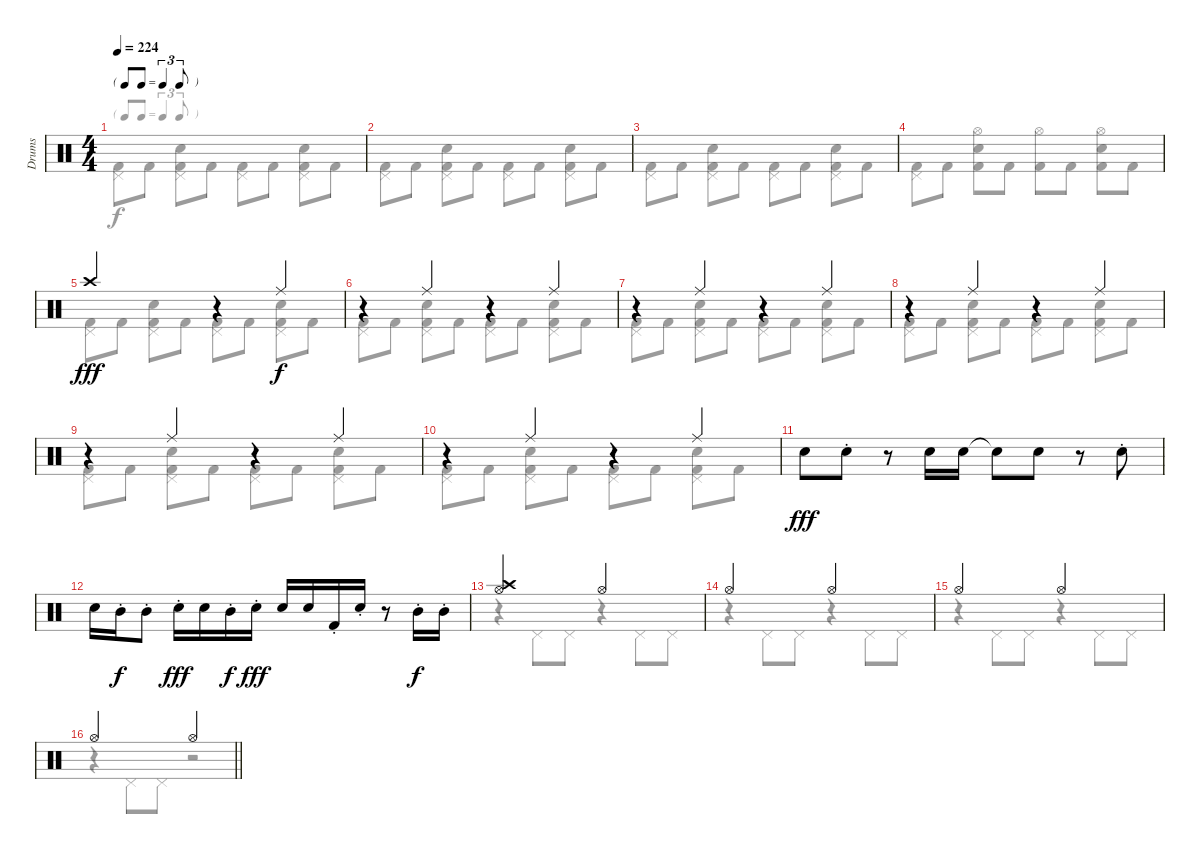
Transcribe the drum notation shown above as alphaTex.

\track ("Drums" "Drums") {instrument percussion}
\staff {score}
\articulation defaults
\voice
\ts (4 4)
\tf triplet8th
\tempo 224
\clef neutral
\ks c
|
|
|
|
"Crash high (hit)".2{dy fff} r.4 "Ride (middle)".4{dy f} |
r.4 "Ride (middle)".4 r.4 "Ride (middle)".4 |
r.4 "Ride (middle)".4 r.4 "Ride (middle)".4 |
r.4 "Ride (middle)".4 r.4 "Ride (middle)".4 |
r.4 "Ride (middle)".4 r.4 "Ride (middle)".4 |
r.4 "Ride (middle)".4 r.4 "Ride (middle)".4 |
"Electric Snare (hit)".8{dy fff} "Electric Snare (hit)"{st}.8 r.8 "Electric Snare (hit)".16 "Electric Snare (hit)".16 "Snare (hit)"{t}.8 "Electric Snare (hit)".8 r.8 "Electric Snare (hit)"{st}.8 |
"Electric Snare (hit)".16 "Mid Tom (hit)"{st}.16{dy f} "Mid Tom (hit)"{st}.8 "Electric Snare (hit)"{st}.16{dy fff} "Electric Snare (hit)".16 "Mid Tom (hit)"{st}.16{dy f} "Electric Snare (hit)"{st}.16{dy fff} "Electric Snare (hit)".16 "Electric Snare (hit)".16 "Kick (hit) 2"{st}.16 "Electric Snare (hit)"{st}.16 r.8 "Mid Tom (hit)"{st}.16{dy f} "Mid Tom (hit)"{st}.16 |
("Crash high (hit)" "Hi-Hat (open)").2 "Hi-Hat (open)".2 |
"Hi-Hat (open)".2 "Hi-Hat (open)".2 |
"Hi-Hat (open)".2 "Hi-Hat (open)".2 |
\barLineRight lightlight "Hi-Hat (open)".2 "Hi-Hat (open)".2
\voice
\clef neutral
\ottava regular
\simile none
\ks c
("Kick (hit) 2" "Pedal Hi-Hat (hit)").8{dy f} "Kick (hit) 2".8 ("Electric Snare (hit)" "Kick (hit) 2" "Pedal Hi-Hat (hit)").8 "Kick (hit) 2".8 ("Kick (hit) 2" "Pedal Hi-Hat (hit)").8 "Kick (hit) 2".8 ("Electric Snare (hit)" "Kick (hit) 2" "Pedal Hi-Hat (hit)").8 "Kick (hit) 2".8 |
("Kick (hit) 2" "Pedal Hi-Hat (hit)").8 "Kick (hit) 2".8 ("Electric Snare (hit)" "Kick (hit) 2" "Pedal Hi-Hat (hit)").8 "Kick (hit) 2".8 ("Kick (hit) 2" "Pedal Hi-Hat (hit)").8 "Kick (hit) 2".8 ("Electric Snare (hit)" "Kick (hit) 2" "Pedal Hi-Hat (hit)").8 "Kick (hit) 2".8 |
("Kick (hit) 2" "Pedal Hi-Hat (hit)").8 "Kick (hit) 2".8 ("Electric Snare (hit)" "Kick (hit) 2" "Pedal Hi-Hat (hit)").8 "Kick (hit) 2".8 ("Kick (hit) 2" "Pedal Hi-Hat (hit)").8 "Kick (hit) 2".8 ("Electric Snare (hit)" "Kick (hit) 2" "Pedal Hi-Hat (hit)").8 "Kick (hit) 2".8 |
("Kick (hit) 2" "Pedal Hi-Hat (hit)").8 "Kick (hit) 2".8 ("Electric Snare (hit)" "Kick (hit) 2" "Hi-Hat (open)").8 "Kick (hit) 2".8 ("Kick (hit) 2" "Hi-Hat (open)").8 "Kick (hit) 2".8 ("Electric Snare (hit)" "Kick (hit) 2" "Hi-Hat (open)").8 "Kick (hit) 2".8 |
("Kick (hit) 2" "Pedal Hi-Hat (hit)").8 "Kick (hit) 2".8 ("Electric Snare (hit)" "Kick (hit) 2" "Pedal Hi-Hat (hit)").8 "Kick (hit) 2".8 ("Kick (hit) 2" "Pedal Hi-Hat (hit)").8 "Kick (hit) 2".8 ("Electric Snare (hit)" "Kick (hit) 2" "Pedal Hi-Hat (hit)").8 "Kick (hit) 2".8 |
("Kick (hit) 2" "Pedal Hi-Hat (hit)").8 "Kick (hit) 2".8 ("Electric Snare (hit)" "Kick (hit) 2" "Pedal Hi-Hat (hit)").8 "Kick (hit) 2".8 ("Kick (hit) 2" "Pedal Hi-Hat (hit)").8 "Kick (hit) 2".8 ("Electric Snare (hit)" "Kick (hit) 2" "Pedal Hi-Hat (hit)").8 "Kick (hit) 2".8 |
("Kick (hit) 2" "Pedal Hi-Hat (hit)").8 "Kick (hit) 2".8 ("Electric Snare (hit)" "Kick (hit) 2" "Pedal Hi-Hat (hit)").8 "Kick (hit) 2".8 ("Kick (hit) 2" "Pedal Hi-Hat (hit)").8 "Kick (hit) 2".8 ("Electric Snare (hit)" "Kick (hit) 2" "Pedal Hi-Hat (hit)").8 "Kick (hit) 2".8 |
("Kick (hit) 2" "Pedal Hi-Hat (hit)").8 "Kick (hit) 2".8 ("Electric Snare (hit)" "Kick (hit) 2" "Pedal Hi-Hat (hit)").8 "Kick (hit) 2".8 ("Kick (hit) 2" "Pedal Hi-Hat (hit)").8 "Kick (hit) 2".8 ("Electric Snare (hit)" "Kick (hit) 2" "Pedal Hi-Hat (hit)").8 "Kick (hit) 2".8 |
("Kick (hit) 2" "Pedal Hi-Hat (hit)").8 "Kick (hit) 2".8 ("Electric Snare (hit)" "Kick (hit) 2" "Pedal Hi-Hat (hit)").8 "Kick (hit) 2".8 ("Kick (hit) 2" "Pedal Hi-Hat (hit)").8 "Kick (hit) 2".8 ("Electric Snare (hit)" "Kick (hit) 2" "Pedal Hi-Hat (hit)").8 "Kick (hit) 2".8 |
("Kick (hit) 2" "Pedal Hi-Hat (hit)").8 "Kick (hit) 2".8 ("Electric Snare (hit)" "Kick (hit) 2" "Pedal Hi-Hat (hit)").8 "Kick (hit) 2".8 ("Kick (hit) 2" "Pedal Hi-Hat (hit)").8 "Kick (hit) 2".8 ("Electric Snare (hit)" "Kick (hit) 2" "Pedal Hi-Hat (hit)").8 "Kick (hit) 2".8 |
|
|
r.4 "Pedal Hi-Hat (hit)".8 "Pedal Hi-Hat (hit)".8 r.4 "Pedal Hi-Hat (hit)".8 "Pedal Hi-Hat (hit)".8 |
r.4 "Pedal Hi-Hat (hit)".8 "Pedal Hi-Hat (hit)".8 r.4 "Pedal Hi-Hat (hit)".8 "Pedal Hi-Hat (hit)".8 |
r.4 "Pedal Hi-Hat (hit)".8 "Pedal Hi-Hat (hit)".8 r.4 "Pedal Hi-Hat (hit)".8 "Pedal Hi-Hat (hit)".8 |
\barLineRight lightlight
r.4 "Pedal Hi-Hat (hit)".8 "Pedal Hi-Hat (hit)".8 r.2
